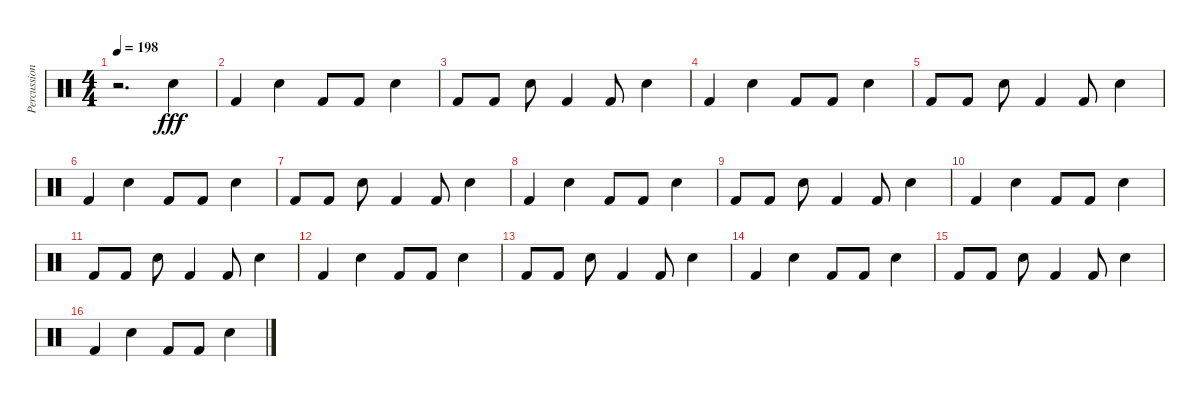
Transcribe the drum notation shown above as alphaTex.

\track ("Percussion" "Percussion") {instrument percussion}
\staff {score}
\articulation defaults
\ts (4 4)
\tempo 198
\clef neutral
\ks c
r.2{d dy fff} "Electric Snare (hit)".4 |
"Kick (hit) 2".4 "Electric Snare (hit)".4 "Kick (hit) 2".8 "Kick (hit) 2".8 "Electric Snare (hit)".4 |
"Kick (hit) 2".8 "Kick (hit) 2".8 "Electric Snare (hit)".8 "Kick (hit) 2".4 "Kick (hit) 2".8 "Electric Snare (hit)".4 |
"Kick (hit) 2".4 "Electric Snare (hit)".4 "Kick (hit) 2".8 "Kick (hit) 2".8 "Electric Snare (hit)".4 |
"Kick (hit) 2".8 "Kick (hit) 2".8 "Electric Snare (hit)".8 "Kick (hit) 2".4 "Kick (hit) 2".8 "Electric Snare (hit)".4 |
"Kick (hit) 2".4 "Electric Snare (hit)".4 "Kick (hit) 2".8 "Kick (hit) 2".8 "Electric Snare (hit)".4 |
"Kick (hit) 2".8 "Kick (hit) 2".8 "Electric Snare (hit)".8 "Kick (hit) 2".4 "Kick (hit) 2".8 "Electric Snare (hit)".4 |
"Kick (hit) 2".4 "Electric Snare (hit)".4 "Kick (hit) 2".8 "Kick (hit) 2".8 "Electric Snare (hit)".4 |
"Kick (hit) 2".8 "Kick (hit) 2".8 "Electric Snare (hit)".8 "Kick (hit) 2".4 "Kick (hit) 2".8 "Electric Snare (hit)".4 |
"Kick (hit) 2".4 "Electric Snare (hit)".4 "Kick (hit) 2".8 "Kick (hit) 2".8 "Electric Snare (hit)".4 |
"Kick (hit) 2".8 "Kick (hit) 2".8 "Electric Snare (hit)".8 "Kick (hit) 2".4 "Kick (hit) 2".8 "Electric Snare (hit)".4 |
"Kick (hit) 2".4 "Electric Snare (hit)".4 "Kick (hit) 2".8 "Kick (hit) 2".8 "Electric Snare (hit)".4 |
"Kick (hit) 2".8 "Kick (hit) 2".8 "Electric Snare (hit)".8 "Kick (hit) 2".4 "Kick (hit) 2".8 "Electric Snare (hit)".4 |
"Kick (hit) 2".4 "Electric Snare (hit)".4 "Kick (hit) 2".8 "Kick (hit) 2".8 "Electric Snare (hit)".4 |
"Kick (hit) 2".8 "Kick (hit) 2".8 "Electric Snare (hit)".8 "Kick (hit) 2".4 "Kick (hit) 2".8 "Electric Snare (hit)".4 |
"Kick (hit) 2".4 "Electric Snare (hit)".4 "Kick (hit) 2".8 "Kick (hit) 2".8 "Electric Snare (hit)".4
